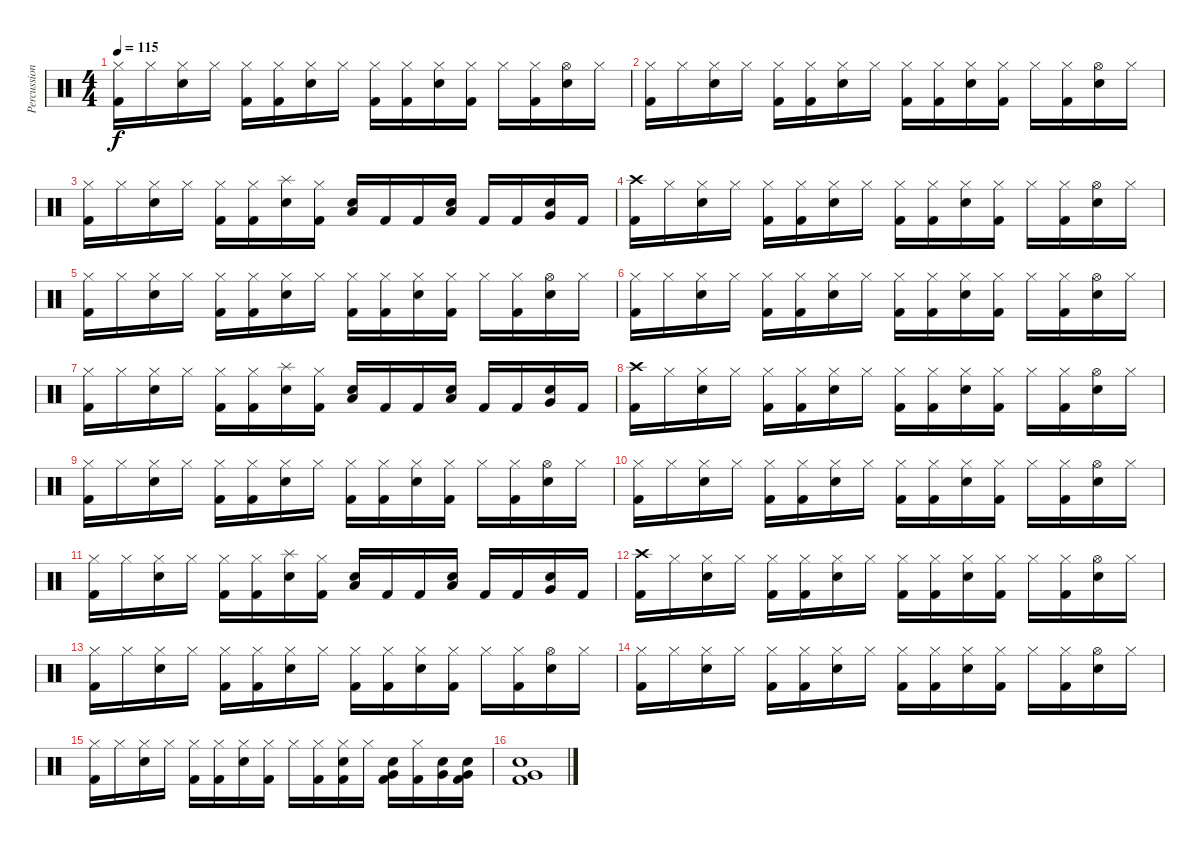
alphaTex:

\track ("Percussion" "Percussion") {instrument percussion}
\staff {score}
\articulation defaults
\ts (4 4)
\tempo 115
\clef neutral
\ks c
("Hi-Hat (closed)" "Kick (hit) 2").16{dy f} "Hi-Hat (closed)".16 ("Hi-Hat (closed)" "Electric Snare (hit)").16 "Hi-Hat (closed)".16 ("Hi-Hat (closed)" "Kick (hit) 2").16 ("Hi-Hat (closed)" "Kick (hit) 2").16 ("Hi-Hat (closed)" "Electric Snare (hit)").16 "Hi-Hat (closed)".16 ("Hi-Hat (closed)" "Kick (hit) 2").16 ("Hi-Hat (closed)" "Kick (hit) 2").16 ("Hi-Hat (closed)" "Electric Snare (hit)").16 ("Hi-Hat (closed)" "Kick (hit) 2").16 "Hi-Hat (closed)".16 ("Hi-Hat (closed)" "Kick (hit) 2").16 ("Hi-Hat (open)" "Electric Snare (hit)").16 "Hi-Hat (closed)".16 |
("Hi-Hat (closed)" "Kick (hit) 2").16 "Hi-Hat (closed)".16 ("Hi-Hat (closed)" "Electric Snare (hit)").16 "Hi-Hat (closed)".16 ("Hi-Hat (closed)" "Kick (hit) 2").16 ("Hi-Hat (closed)" "Kick (hit) 2").16 ("Hi-Hat (closed)" "Electric Snare (hit)").16 "Hi-Hat (closed)".16 ("Hi-Hat (closed)" "Kick (hit) 2").16 ("Hi-Hat (closed)" "Kick (hit) 2").16 ("Hi-Hat (closed)" "Electric Snare (hit)").16 ("Hi-Hat (closed)" "Kick (hit) 2").16 "Hi-Hat (closed)".16 ("Hi-Hat (closed)" "Kick (hit) 2").16 ("Hi-Hat (open)" "Electric Snare (hit)").16 "Hi-Hat (closed)".16 |
("Hi-Hat (closed)" "Kick (hit) 2").16 "Hi-Hat (closed)".16 ("Hi-Hat (closed)" "Electric Snare (hit)").16 "Hi-Hat (closed)".16 ("Hi-Hat (closed)" "Kick (hit) 2").16 ("Hi-Hat (closed)" "Kick (hit) 2").16 ("Splash (hit)" "Electric Snare (hit)").16 ("Hi-Hat (closed)" "Kick (hit) 2").16 ("Low Tom (hit)" "Electric Snare (hit)").16 "Kick (hit) 2".16 "Kick (hit) 2".16 ("Low Tom (hit)" "Electric Snare (hit)").16 "Kick (hit) 2".16 "Kick (hit) 2".16 ("Very Low Tom (hit)" "Electric Snare (hit)").16 "Kick (hit) 2".16 |
("Crash high (hit)" "Kick (hit) 2").16 "Hi-Hat (closed)".16 ("Hi-Hat (closed)" "Electric Snare (hit)").16 "Hi-Hat (closed)".16 ("Hi-Hat (closed)" "Kick (hit) 2").16 ("Hi-Hat (closed)" "Kick (hit) 2").16 ("Hi-Hat (closed)" "Electric Snare (hit)").16 "Hi-Hat (closed)".16 ("Hi-Hat (closed)" "Kick (hit) 2").16 ("Hi-Hat (closed)" "Kick (hit) 2").16 ("Hi-Hat (closed)" "Electric Snare (hit)").16 ("Hi-Hat (closed)" "Kick (hit) 2").16 "Hi-Hat (closed)".16 ("Hi-Hat (closed)" "Kick (hit) 2").16 ("Hi-Hat (open)" "Electric Snare (hit)").16 "Hi-Hat (closed)".16 |
("Hi-Hat (closed)" "Kick (hit) 2").16 "Hi-Hat (closed)".16 ("Hi-Hat (closed)" "Electric Snare (hit)").16 "Hi-Hat (closed)".16 ("Hi-Hat (closed)" "Kick (hit) 2").16 ("Hi-Hat (closed)" "Kick (hit) 2").16 ("Hi-Hat (closed)" "Electric Snare (hit)").16 "Hi-Hat (closed)".16 ("Hi-Hat (closed)" "Kick (hit) 2").16 ("Hi-Hat (closed)" "Kick (hit) 2").16 ("Hi-Hat (closed)" "Electric Snare (hit)").16 ("Hi-Hat (closed)" "Kick (hit) 2").16 "Hi-Hat (closed)".16 ("Hi-Hat (closed)" "Kick (hit) 2").16 ("Hi-Hat (open)" "Electric Snare (hit)").16 "Hi-Hat (closed)".16 |
("Hi-Hat (closed)" "Kick (hit) 2").16 "Hi-Hat (closed)".16 ("Hi-Hat (closed)" "Electric Snare (hit)").16 "Hi-Hat (closed)".16 ("Hi-Hat (closed)" "Kick (hit) 2").16 ("Hi-Hat (closed)" "Kick (hit) 2").16 ("Hi-Hat (closed)" "Electric Snare (hit)").16 "Hi-Hat (closed)".16 ("Hi-Hat (closed)" "Kick (hit) 2").16 ("Hi-Hat (closed)" "Kick (hit) 2").16 ("Hi-Hat (closed)" "Electric Snare (hit)").16 ("Hi-Hat (closed)" "Kick (hit) 2").16 "Hi-Hat (closed)".16 ("Hi-Hat (closed)" "Kick (hit) 2").16 ("Hi-Hat (open)" "Electric Snare (hit)").16 "Hi-Hat (closed)".16 |
("Hi-Hat (closed)" "Kick (hit) 2").16 "Hi-Hat (closed)".16 ("Hi-Hat (closed)" "Electric Snare (hit)").16 "Hi-Hat (closed)".16 ("Hi-Hat (closed)" "Kick (hit) 2").16 ("Hi-Hat (closed)" "Kick (hit) 2").16 ("Splash (hit)" "Electric Snare (hit)").16 ("Hi-Hat (closed)" "Kick (hit) 2").16 ("Low Tom (hit)" "Electric Snare (hit)").16 "Kick (hit) 2".16 "Kick (hit) 2".16 ("Low Tom (hit)" "Electric Snare (hit)").16 "Kick (hit) 2".16 "Kick (hit) 2".16 ("Very Low Tom (hit)" "Electric Snare (hit)").16 "Kick (hit) 2".16 |
("Crash high (hit)" "Kick (hit) 2").16 "Hi-Hat (closed)".16 ("Hi-Hat (closed)" "Electric Snare (hit)").16 "Hi-Hat (closed)".16 ("Hi-Hat (closed)" "Kick (hit) 2").16 ("Hi-Hat (closed)" "Kick (hit) 2").16 ("Hi-Hat (closed)" "Electric Snare (hit)").16 "Hi-Hat (closed)".16 ("Hi-Hat (closed)" "Kick (hit) 2").16 ("Hi-Hat (closed)" "Kick (hit) 2").16 ("Hi-Hat (closed)" "Electric Snare (hit)").16 ("Hi-Hat (closed)" "Kick (hit) 2").16 "Hi-Hat (closed)".16 ("Hi-Hat (closed)" "Kick (hit) 2").16 ("Hi-Hat (open)" "Electric Snare (hit)").16 "Hi-Hat (closed)".16 |
("Hi-Hat (closed)" "Kick (hit) 2").16 "Hi-Hat (closed)".16 ("Hi-Hat (closed)" "Electric Snare (hit)").16 "Hi-Hat (closed)".16 ("Hi-Hat (closed)" "Kick (hit) 2").16 ("Hi-Hat (closed)" "Kick (hit) 2").16 ("Hi-Hat (closed)" "Electric Snare (hit)").16 "Hi-Hat (closed)".16 ("Hi-Hat (closed)" "Kick (hit) 2").16 ("Hi-Hat (closed)" "Kick (hit) 2").16 ("Hi-Hat (closed)" "Electric Snare (hit)").16 ("Hi-Hat (closed)" "Kick (hit) 2").16 "Hi-Hat (closed)".16 ("Hi-Hat (closed)" "Kick (hit) 2").16 ("Hi-Hat (open)" "Electric Snare (hit)").16 "Hi-Hat (closed)".16 |
("Hi-Hat (closed)" "Kick (hit) 2").16 "Hi-Hat (closed)".16 ("Hi-Hat (closed)" "Electric Snare (hit)").16 "Hi-Hat (closed)".16 ("Hi-Hat (closed)" "Kick (hit) 2").16 ("Hi-Hat (closed)" "Kick (hit) 2").16 ("Hi-Hat (closed)" "Electric Snare (hit)").16 "Hi-Hat (closed)".16 ("Hi-Hat (closed)" "Kick (hit) 2").16 ("Hi-Hat (closed)" "Kick (hit) 2").16 ("Hi-Hat (closed)" "Electric Snare (hit)").16 ("Hi-Hat (closed)" "Kick (hit) 2").16 "Hi-Hat (closed)".16 ("Hi-Hat (closed)" "Kick (hit) 2").16 ("Hi-Hat (open)" "Electric Snare (hit)").16 "Hi-Hat (closed)".16 |
("Hi-Hat (closed)" "Kick (hit) 2").16 "Hi-Hat (closed)".16 ("Hi-Hat (closed)" "Electric Snare (hit)").16 "Hi-Hat (closed)".16 ("Hi-Hat (closed)" "Kick (hit) 2").16 ("Hi-Hat (closed)" "Kick (hit) 2").16 ("Splash (hit)" "Electric Snare (hit)").16 ("Hi-Hat (closed)" "Kick (hit) 2").16 ("Low Tom (hit)" "Electric Snare (hit)").16 "Kick (hit) 2".16 "Kick (hit) 2".16 ("Low Tom (hit)" "Electric Snare (hit)").16 "Kick (hit) 2".16 "Kick (hit) 2".16 ("Very Low Tom (hit)" "Electric Snare (hit)").16 "Kick (hit) 2".16 |
("Crash high (hit)" "Kick (hit) 2").16 "Hi-Hat (closed)".16 ("Hi-Hat (closed)" "Electric Snare (hit)").16 "Hi-Hat (closed)".16 ("Hi-Hat (closed)" "Kick (hit) 2").16 ("Hi-Hat (closed)" "Kick (hit) 2").16 ("Hi-Hat (closed)" "Electric Snare (hit)").16 "Hi-Hat (closed)".16 ("Hi-Hat (closed)" "Kick (hit) 2").16 ("Hi-Hat (closed)" "Kick (hit) 2").16 ("Hi-Hat (closed)" "Electric Snare (hit)").16 ("Hi-Hat (closed)" "Kick (hit) 2").16 "Hi-Hat (closed)".16 ("Hi-Hat (closed)" "Kick (hit) 2").16 ("Hi-Hat (open)" "Electric Snare (hit)").16 "Hi-Hat (closed)".16 |
("Hi-Hat (closed)" "Kick (hit) 2").16 "Hi-Hat (closed)".16 ("Hi-Hat (closed)" "Electric Snare (hit)").16 "Hi-Hat (closed)".16 ("Hi-Hat (closed)" "Kick (hit) 2").16 ("Hi-Hat (closed)" "Kick (hit) 2").16 ("Hi-Hat (closed)" "Electric Snare (hit)").16 "Hi-Hat (closed)".16 ("Hi-Hat (closed)" "Kick (hit) 2").16 ("Hi-Hat (closed)" "Kick (hit) 2").16 ("Hi-Hat (closed)" "Electric Snare (hit)").16 ("Hi-Hat (closed)" "Kick (hit) 2").16 "Hi-Hat (closed)".16 ("Hi-Hat (closed)" "Kick (hit) 2").16 ("Hi-Hat (open)" "Electric Snare (hit)").16 "Hi-Hat (closed)".16 |
("Hi-Hat (closed)" "Kick (hit) 2").16 "Hi-Hat (closed)".16 ("Hi-Hat (closed)" "Electric Snare (hit)").16 "Hi-Hat (closed)".16 ("Hi-Hat (closed)" "Kick (hit) 2").16 ("Hi-Hat (closed)" "Kick (hit) 2").16 ("Hi-Hat (closed)" "Electric Snare (hit)").16 "Hi-Hat (closed)".16 ("Hi-Hat (closed)" "Kick (hit) 2").16 ("Hi-Hat (closed)" "Kick (hit) 2").16 ("Hi-Hat (closed)" "Electric Snare (hit)").16 ("Hi-Hat (closed)" "Kick (hit) 2").16 "Hi-Hat (closed)".16 ("Hi-Hat (closed)" "Kick (hit) 2").16 ("Hi-Hat (open)" "Electric Snare (hit)").16 "Hi-Hat (closed)".16 |
("Hi-Hat (closed)" "Kick (hit) 2").16 "Hi-Hat (closed)".16 ("Hi-Hat (closed)" "Electric Snare (hit)").16 "Hi-Hat (closed)".16 ("Hi-Hat (closed)" "Kick (hit) 2").16 ("Hi-Hat (closed)" "Kick (hit) 2").16 ("Hi-Hat (closed)" "Electric Snare (hit)").16 ("Hi-Hat (closed)" "Kick (hit) 2").16 "Hi-Hat (closed)".16 ("Hi-Hat (closed)" "Kick (hit) 2").16 ("Hi-Hat (closed)" "Electric Snare (hit)" "Kick (hit) 2").16 "Hi-Hat (closed)".16 ("Very Low Tom (hit)" "Electric Snare (hit)" "Kick (hit) 2").16 ("Hi-Hat (closed)" "Kick (hit) 2").16 ("Very Low Tom (hit)" "Electric Snare (hit)").16 ("Very Low Tom (hit)" "Electric Snare (hit)" "Kick (hit) 2").16 |
("Very Low Tom (hit)" "Electric Snare (hit)" "Kick (hit) 2").1
